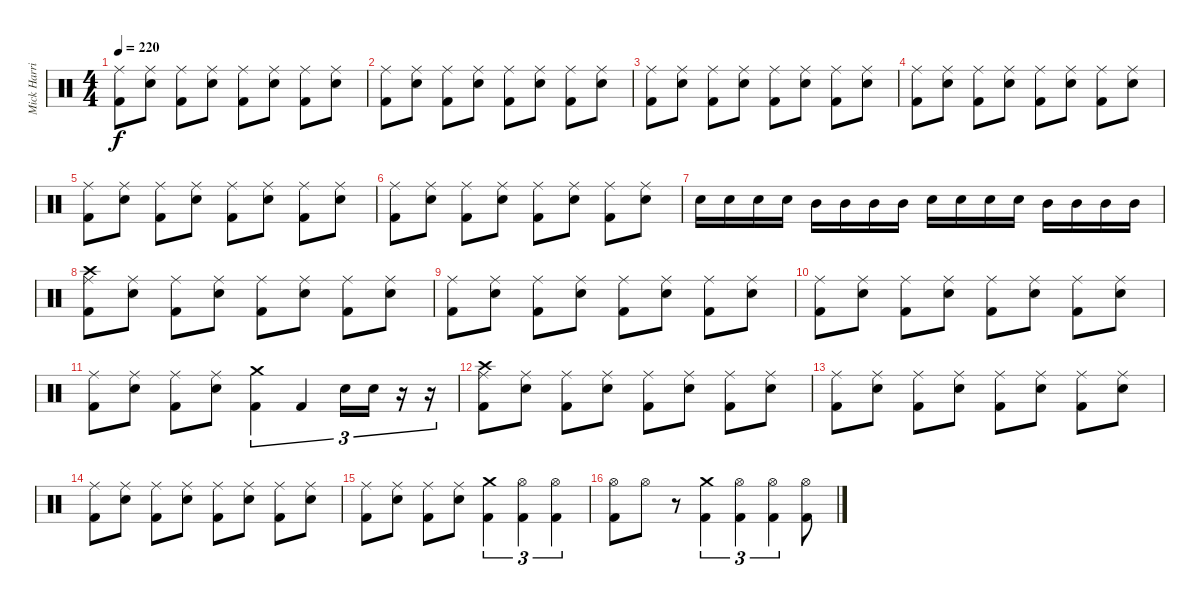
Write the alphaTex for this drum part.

\track ("Mick Harris (Drums)" "Mick Harri") {instrument percussion}
\staff {score}
\articulation defaults
\ts (4 4)
\tempo 220
\clef neutral
\ks c
("Kick (hit) 2" "Ride (middle)").8{dy f} ("Electric Snare (hit)" "Ride (middle)").8 ("Kick (hit) 2" "Ride (middle)").8 ("Electric Snare (hit)" "Ride (middle)").8 ("Kick (hit) 2" "Ride (middle)").8 ("Electric Snare (hit)" "Ride (middle)").8 ("Kick (hit) 2" "Ride (middle)").8 ("Electric Snare (hit)" "Ride (middle)").8 |
("Kick (hit) 2" "Ride (middle)").8 ("Electric Snare (hit)" "Ride (middle)").8 ("Kick (hit) 2" "Ride (middle)").8 ("Electric Snare (hit)" "Ride (middle)").8 ("Kick (hit) 2" "Ride (middle)").8 ("Electric Snare (hit)" "Ride (middle)").8 ("Kick (hit) 2" "Ride (middle)").8 ("Electric Snare (hit)" "Ride (middle)").8 |
("Kick (hit) 2" "Ride (middle)").8 ("Electric Snare (hit)" "Ride (middle)").8 ("Kick (hit) 2" "Ride (middle)").8 ("Electric Snare (hit)" "Ride (middle)").8 ("Kick (hit) 2" "Ride (middle)").8 ("Electric Snare (hit)" "Ride (middle)").8 ("Kick (hit) 2" "Ride (middle)").8 ("Electric Snare (hit)" "Ride (middle)").8 |
("Kick (hit) 2" "Ride (middle)").8 ("Electric Snare (hit)" "Ride (middle)").8 ("Kick (hit) 2" "Ride (middle)").8 ("Electric Snare (hit)" "Ride (middle)").8 ("Kick (hit) 2" "Ride (middle)").8 ("Electric Snare (hit)" "Ride (middle)").8 ("Kick (hit) 2" "Ride (middle)").8 ("Electric Snare (hit)" "Ride (middle)").8 |
("Kick (hit) 2" "Ride (middle)").8 ("Electric Snare (hit)" "Ride (middle)").8 ("Kick (hit) 2" "Ride (middle)").8 ("Electric Snare (hit)" "Ride (middle)").8 ("Kick (hit) 2" "Ride (middle)").8 ("Electric Snare (hit)" "Ride (middle)").8 ("Kick (hit) 2" "Ride (middle)").8 ("Electric Snare (hit)" "Ride (middle)").8 |
("Kick (hit) 2" "Ride (middle)").8 ("Electric Snare (hit)" "Ride (middle)").8 ("Kick (hit) 2" "Ride (middle)").8 ("Electric Snare (hit)" "Ride (middle)").8 ("Kick (hit) 2" "Ride (middle)").8 ("Electric Snare (hit)" "Ride (middle)").8 ("Kick (hit) 2" "Ride (middle)").8 ("Electric Snare (hit)" "Ride (middle)").8 |
"Electric Snare (hit)".16 "Electric Snare (hit)".16 "Electric Snare (hit)".16 "Electric Snare (hit)".16 "Mid Tom (hit)".16 "Mid Tom (hit)".16 "Mid Tom (hit)".16 "Mid Tom (hit)".16 "Electric Snare (hit)".16 "Electric Snare (hit)".16 "Electric Snare (hit)".16 "Electric Snare (hit)".16 "Mid Tom (hit)".16 "Mid Tom (hit)".16 "Mid Tom (hit)".16 "Mid Tom (hit)".16 |
("Kick (hit) 2" "Crash high (hit)" "Ride (middle)").8 ("Electric Snare (hit)" "Ride (middle)").8 ("Kick (hit) 2" "Ride (middle)").8 ("Electric Snare (hit)" "Ride (middle)").8 ("Kick (hit) 2" "Ride (middle)").8 ("Electric Snare (hit)" "Ride (middle)").8 ("Kick (hit) 2" "Ride (middle)").8 ("Electric Snare (hit)" "Ride (middle)").8 |
("Kick (hit) 2" "Ride (middle)").8 ("Electric Snare (hit)" "Ride (middle)").8 ("Kick (hit) 2" "Ride (middle)").8 ("Electric Snare (hit)" "Ride (middle)").8 ("Kick (hit) 2" "Ride (middle)").8 ("Electric Snare (hit)" "Ride (middle)").8 ("Kick (hit) 2" "Ride (middle)").8 ("Electric Snare (hit)" "Ride (middle)").8 |
("Kick (hit) 2" "Ride (middle)").8 ("Electric Snare (hit)" "Ride (middle)").8 ("Kick (hit) 2" "Ride (middle)").8 ("Electric Snare (hit)" "Ride (middle)").8 ("Kick (hit) 2" "Ride (middle)").8 ("Electric Snare (hit)" "Ride (middle)").8 ("Kick (hit) 2" "Ride (middle)").8 ("Electric Snare (hit)" "Ride (middle)").8 |
("Kick (hit) 2" "Ride (middle)").8 ("Electric Snare (hit)" "Ride (middle)").8 ("Kick (hit) 2" "Ride (middle)").8 ("Electric Snare (hit)" "Ride (middle)").8 ("Kick (hit) 2" "Crash medium (hit)").4{tu (3 2)} "Kick (hit) 2".4{tu (3 2)} "Electric Snare (hit)".16{tu (3 2)} "Electric Snare (hit)".16{tu (3 2)} r.16{tu (3 2)} r.16{tu (3 2)} |
("Kick (hit) 2" "Crash high (hit)" "Ride (middle)").8 ("Electric Snare (hit)" "Ride (middle)").8 ("Kick (hit) 2" "Ride (middle)").8 ("Electric Snare (hit)" "Ride (middle)").8 ("Kick (hit) 2" "Ride (middle)").8 ("Electric Snare (hit)" "Ride (middle)").8 ("Kick (hit) 2" "Ride (middle)").8 ("Electric Snare (hit)" "Ride (middle)").8 |
("Kick (hit) 2" "Ride (middle)").8 ("Electric Snare (hit)" "Ride (middle)").8 ("Kick (hit) 2" "Ride (middle)").8 ("Electric Snare (hit)" "Ride (middle)").8 ("Kick (hit) 2" "Ride (middle)").8 ("Electric Snare (hit)" "Ride (middle)").8 ("Kick (hit) 2" "Ride (middle)").8 ("Electric Snare (hit)" "Ride (middle)").8 |
("Kick (hit) 2" "Ride (middle)").8 ("Electric Snare (hit)" "Ride (middle)").8 ("Kick (hit) 2" "Ride (middle)").8 ("Electric Snare (hit)" "Ride (middle)").8 ("Kick (hit) 2" "Ride (middle)").8 ("Electric Snare (hit)" "Ride (middle)").8 ("Kick (hit) 2" "Ride (middle)").8 ("Electric Snare (hit)" "Ride (middle)").8 |
("Kick (hit) 2" "Ride (middle)").8 ("Electric Snare (hit)" "Ride (middle)").8 ("Kick (hit) 2" "Ride (middle)").8 ("Electric Snare (hit)" "Ride (middle)").8 ("Kick (hit) 2" "Crash medium (hit)").4{tu (3 2)} ("Kick (hit) 2" "Hi-Hat (open)").4{tu (3 2)} ("Kick (hit) 2" "Hi-Hat (open)").4{tu (3 2)} |
("Kick (hit) 2" "Hi-Hat (open)").8 "Hi-Hat (open)".8{volume 0} r.8 ("Kick (hit) 2" "Crash medium (hit)").4{tu (3 2) volume 16} ("Kick (hit) 2" "Hi-Hat (open)").4{tu (3 2)} ("Kick (hit) 2" "Hi-Hat (open)").4{tu (3 2)} ("Kick (hit) 2" "Hi-Hat (open)").8
